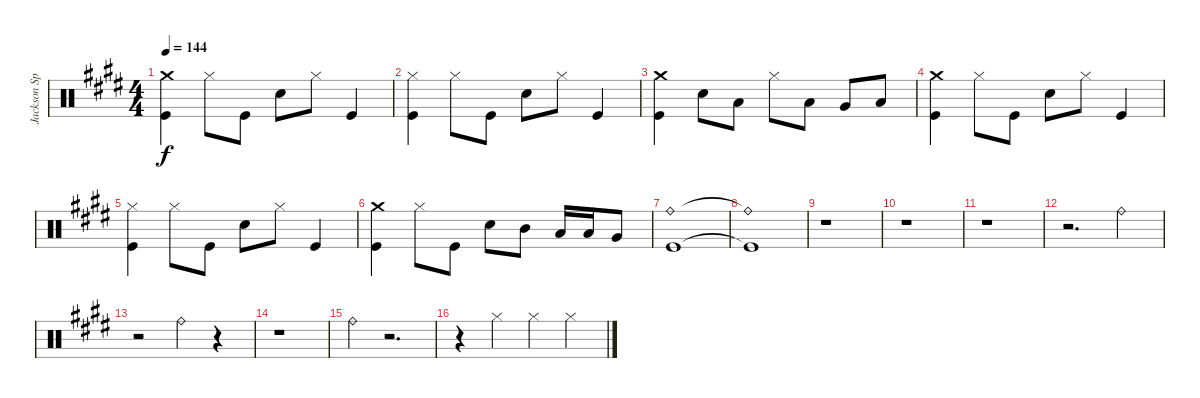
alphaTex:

\track ("Jackson Spiers Drums" "Jackson Sp") {instrument percussion}
\staff {score}
\articulation defaults
\ts (4 4)
\tempo 144
\clef neutral
\ks c#minor
("Crash medium (hit)" "Kick (hit)").4{dy f} "Hi-Hat (closed)".8 "Kick (hit)".8 "Snare (hit) 2".8 "Hi-Hat (closed)".8 "Kick (hit)".4 |
("Hi-Hat (closed)" "Kick (hit)").4 "Hi-Hat (closed)".8 "Kick (hit)".8 "Snare (hit) 2".8 "Hi-Hat (closed)".8 "Kick (hit)".4 |
("Crash medium (hit)" "Kick (hit)").4 "Snare (hit) 2".8 "Low Tom (hit)".8 "Hi-Hat (closed)".8 "Low Tom (hit)".8 "Very Low Tom (hit)".8 "Low Floor Tom (hit)".8 |
("Crash medium (hit)" "Kick (hit)").4 "Hi-Hat (closed)".8 "Kick (hit)".8 "Snare (hit) 2".8 "Hi-Hat (closed)".8 "Kick (hit)".4 |
("Hi-Hat (closed)" "Kick (hit)").4 "Hi-Hat (closed)".8 "Kick (hit)".8 "Snare (hit) 2".8 "Hi-Hat (closed)".8 "Kick (hit)".4 |
("Crash medium (hit)" "Kick (hit)").4 "Hi-Hat (closed)".8 "Kick (hit)".8 "Snare (hit) 2".8 "Mid Tom (hit)".8 "Low Tom (hit)".16 "Low Tom (hit)".16 "Very Low Tom (hit)".8 |
("Ride (bell)" "Kick (hit)").1 |
("Ride (bell)"{t} "Kick (hit)"{t}).1 |
r.1 |
r.1 |
r.1 |
r.2{d} "Ride (bell)".4 |
r.2 "Ride (bell)".4 r.4 |
r.1 |
"Ride (bell)".4 r.2{d} |
r.4 "Hi-Hat (closed)".4 "Hi-Hat (closed)".4 "Hi-Hat (closed)".4
